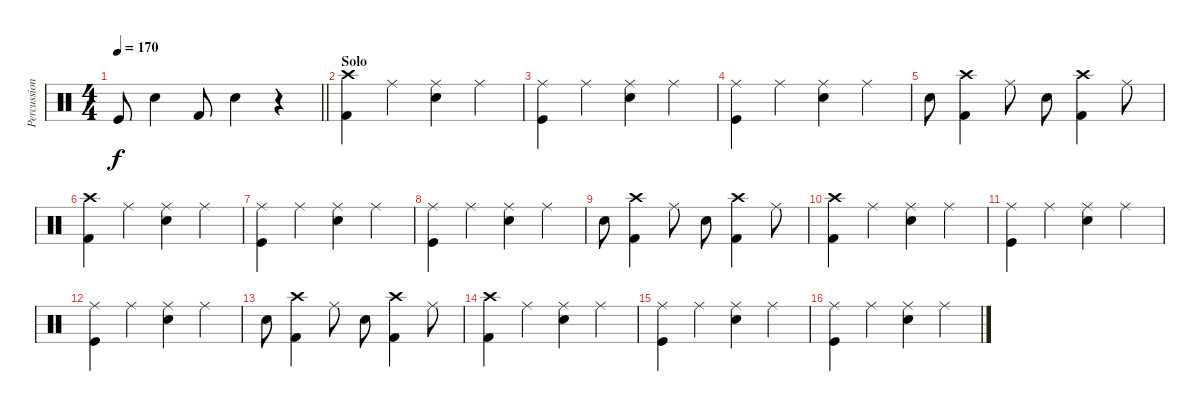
\track ("Percussion" "Percussion") {instrument percussion}
\staff {score}
\articulation defaults
\ts (4 4)
\tempo 170
\clef neutral
\barLineRight lightlight
\ks c "Kick (hit)".8{dy f} "Snare (hit) 2".4 "Kick (hit) 2".8 "Snare (hit) 2".4
r.4 |
\section ("" "Solo")
("Crash high (hit)" "Kick (hit) 2").4 "Ride (middle)".4 ("Ride (middle)" "Snare (hit) 2").4 "Ride (middle)".4 |
("Ride (middle)" "Kick (hit)").4 "Ride (middle)".4 ("Snare (hit) 2" "Ride (middle)").4 "Ride (middle)".4 |
("Ride (middle)" "Kick (hit)").4 "Ride (middle)".4 ("Snare (hit) 2" "Ride (middle)").4 "Ride (middle)".4 |
"Snare (hit) 2".8 ("Kick (hit) 2" "Crash high (hit)").4 "Ride (middle)".8 "Snare (hit) 2".8 ("Kick (hit) 2" "Crash high (hit)").4 "Ride (middle)".8 |
("Crash high (hit)" "Kick (hit) 2").4 "Ride (middle)".4 ("Ride (middle)" "Snare (hit) 2").4 "Ride (middle)".4 |
("Ride (middle)" "Kick (hit)").4 "Ride (middle)".4 ("Snare (hit) 2" "Ride (middle)").4 "Ride (middle)".4 |
("Ride (middle)" "Kick (hit)").4 "Ride (middle)".4 ("Snare (hit) 2" "Ride (middle)").4 "Ride (middle)".4 |
"Snare (hit) 2".8 ("Kick (hit) 2" "Crash high (hit)").4 "Ride (middle)".8 "Snare (hit) 2".8 ("Kick (hit) 2" "Crash high (hit)").4 "Ride (middle)".8 |
("Crash high (hit)" "Kick (hit) 2").4 "Ride (middle)".4 ("Ride (middle)" "Snare (hit) 2").4 "Ride (middle)".4 |
("Ride (middle)" "Kick (hit)").4 "Ride (middle)".4 ("Snare (hit) 2" "Ride (middle)").4 "Ride (middle)".4 |
("Ride (middle)" "Kick (hit)").4 "Ride (middle)".4 ("Snare (hit) 2" "Ride (middle)").4 "Ride (middle)".4 |
"Snare (hit) 2".8 ("Kick (hit) 2" "Crash high (hit)").4 "Ride (middle)".8 "Snare (hit) 2".8 ("Kick (hit) 2" "Crash high (hit)").4 "Ride (middle)".8 |
("Crash high (hit)" "Kick (hit) 2").4 "Ride (middle)".4 ("Ride (middle)" "Snare (hit) 2").4 "Ride (middle)".4 |
("Ride (middle)" "Kick (hit)").4 "Ride (middle)".4 ("Snare (hit) 2" "Ride (middle)").4 "Ride (middle)".4 |
("Ride (middle)" "Kick (hit)").4 "Ride (middle)".4 ("Snare (hit) 2" "Ride (middle)").4 "Ride (middle)".4
